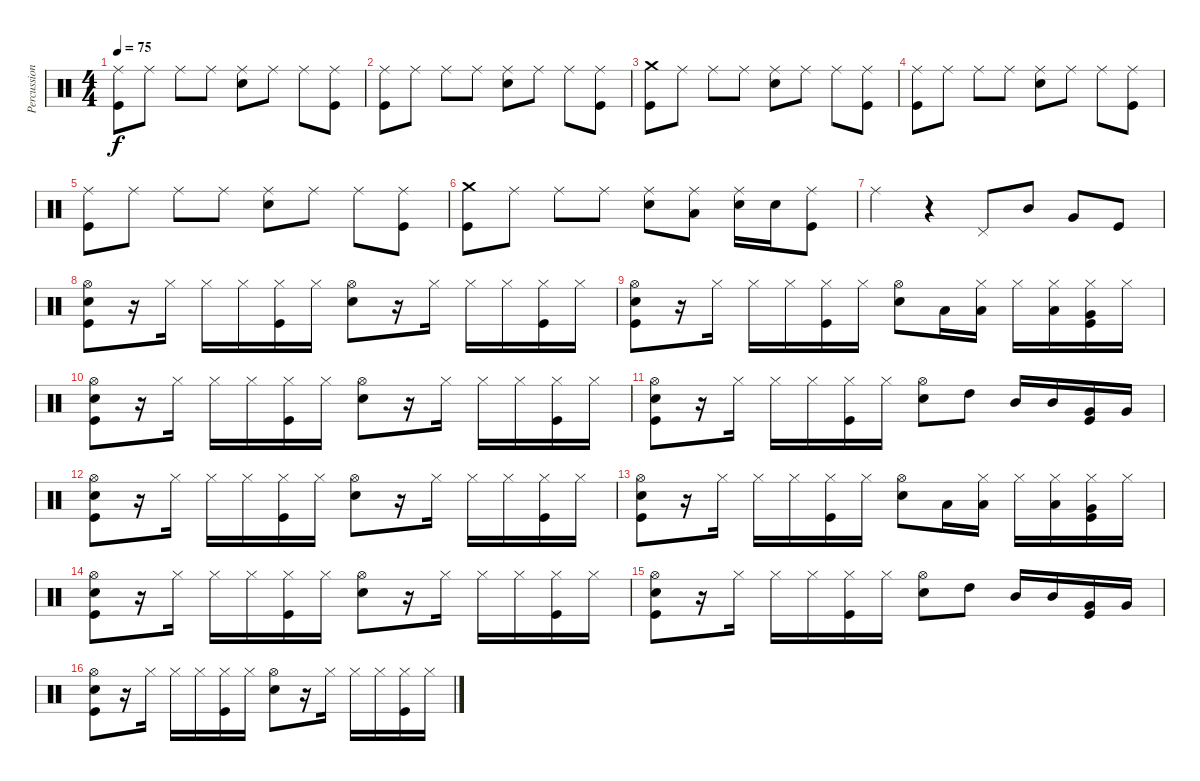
\track ("Percussion" "Percussion") {instrument percussion}
\staff {score}
\articulation defaults
\ts (4 4)
\tempo 75
\clef neutral
\ks c
("Ride (middle)" "Kick (hit)").8{dy f} "Ride (middle)".8 "Ride (middle)".8 "Ride (middle)".8 ("Snare (hit) 2" "Ride (middle)").8 "Ride (middle)".8 "Ride (middle)".8 ("Kick (hit)" "Ride (middle)").8 |
("Ride (middle)" "Kick (hit)").8 "Ride (middle)".8 "Ride (middle)".8 "Ride (middle)".8 ("Snare (hit) 2" "Ride (middle)").8 "Ride (middle)".8 "Ride (middle)".8 ("Kick (hit)" "Ride (middle)").8 |
("Crash medium (hit)" "Kick (hit)").8 "Ride (middle)".8 "Ride (middle)".8 "Ride (middle)".8 ("Snare (hit) 2" "Ride (middle)").8 "Ride (middle)".8 "Ride (middle)".8 ("Kick (hit)" "Ride (middle)").8 |
("Ride (middle)" "Kick (hit)").8 "Ride (middle)".8 "Ride (middle)".8 "Ride (middle)".8 ("Snare (hit) 2" "Ride (middle)").8 "Ride (middle)".8 "Ride (middle)".8 ("Kick (hit)" "Ride (middle)").8 |
("Ride (middle)" "Kick (hit)").8 "Ride (middle)".8 "Ride (middle)".8 "Ride (middle)".8 ("Snare (hit) 2" "Ride (middle)").8 "Ride (middle)".8 "Ride (middle)".8 ("Kick (hit)" "Ride (middle)").8 |
("Crash medium (hit)" "Kick (hit)").8 "Ride (middle)".8 "Ride (middle)".8 "Ride (middle)".8 ("Snare (hit) 2" "Ride (middle)").8 ("Low Floor Tom (hit)" "Ride (middle)").8 ("Snare (hit) 2" "Ride (middle)").16 "Snare (hit) 2".16 ("Kick (hit)" "Ride (middle)").8 |
"Ride (middle)".4 r.4 "Pedal Hi-Hat (hit)".8 "Mid Tom (hit)".8 "Very Low Tom (hit)".8 "Kick (hit)".8 |
("Hi-Hat (open)" "Kick (hit)" "Snare (hit) 2").8 r.16 "Hi-Hat (closed)".16 "Hi-Hat (closed)".16 "Hi-Hat (closed)".16 ("Kick (hit)" "Hi-Hat (closed)").16 "Hi-Hat (closed)".16 ("Snare (hit) 2" "Hi-Hat (open)").8 r.16 "Hi-Hat (closed)".16 "Hi-Hat (closed)".16 "Hi-Hat (closed)".16 ("Kick (hit)" "Hi-Hat (closed)").16 "Hi-Hat (closed)".16 |
("Hi-Hat (open)" "Kick (hit)" "Snare (hit) 2").8 r.16 "Hi-Hat (closed)".16 "Hi-Hat (closed)".16 "Hi-Hat (closed)".16 ("Kick (hit)" "Hi-Hat (closed)").16 "Hi-Hat (closed)".16 ("Snare (hit) 2" "Hi-Hat (open)").8 "Low Tom (hit)".16 ("Low Tom (hit)" "Hi-Hat (closed)").16 "Hi-Hat (closed)".16 ("Low Tom (hit)" "Hi-Hat (closed)").16 ("Very Low Tom (hit)" "Kick (hit)" "Hi-Hat (closed)").16 "Hi-Hat (closed)".16 |
("Hi-Hat (open)" "Kick (hit)" "Snare (hit) 2").8 r.16 "Hi-Hat (closed)".16 "Hi-Hat (closed)".16 "Hi-Hat (closed)".16 ("Kick (hit)" "Hi-Hat (closed)").16 "Hi-Hat (closed)".16 ("Snare (hit) 2" "Hi-Hat (open)").8 r.16 "Hi-Hat (closed)".16 "Hi-Hat (closed)".16 "Hi-Hat (closed)".16 ("Kick (hit)" "Hi-Hat (closed)").16 "Hi-Hat (closed)".16 |
("Hi-Hat (open)" "Kick (hit)" "Snare (hit) 2").8 r.16 "Hi-Hat (closed)".16 "Hi-Hat (closed)".16 "Hi-Hat (closed)".16 ("Kick (hit)" "Hi-Hat (closed)").16 "Hi-Hat (closed)".16 ("Snare (hit) 2" "Hi-Hat (open)").8 "High Tom (hit)".8 "Mid Tom (hit)".16 "Mid Tom (hit)".16 ("Very Low Tom (hit)" "Kick (hit)").16 "Very Low Tom (hit)".16 |
("Hi-Hat (open)" "Kick (hit)" "Snare (hit) 2").8 r.16 "Hi-Hat (closed)".16 "Hi-Hat (closed)".16 "Hi-Hat (closed)".16 ("Kick (hit)" "Hi-Hat (closed)").16 "Hi-Hat (closed)".16 ("Snare (hit) 2" "Hi-Hat (open)").8 r.16 "Hi-Hat (closed)".16 "Hi-Hat (closed)".16 "Hi-Hat (closed)".16 ("Kick (hit)" "Hi-Hat (closed)").16 "Hi-Hat (closed)".16 |
("Hi-Hat (open)" "Kick (hit)" "Snare (hit) 2").8 r.16 "Hi-Hat (closed)".16 "Hi-Hat (closed)".16 "Hi-Hat (closed)".16 ("Kick (hit)" "Hi-Hat (closed)").16 "Hi-Hat (closed)".16 ("Snare (hit) 2" "Hi-Hat (open)").8 "Low Tom (hit)".16 ("Low Tom (hit)" "Hi-Hat (closed)").16 "Hi-Hat (closed)".16 ("Low Tom (hit)" "Hi-Hat (closed)").16 ("Very Low Tom (hit)" "Kick (hit)" "Hi-Hat (closed)").16 "Hi-Hat (closed)".16 |
("Hi-Hat (open)" "Kick (hit)" "Snare (hit) 2").8 r.16 "Hi-Hat (closed)".16 "Hi-Hat (closed)".16 "Hi-Hat (closed)".16 ("Kick (hit)" "Hi-Hat (closed)").16 "Hi-Hat (closed)".16 ("Snare (hit) 2" "Hi-Hat (open)").8 r.16 "Hi-Hat (closed)".16 "Hi-Hat (closed)".16 "Hi-Hat (closed)".16 ("Kick (hit)" "Hi-Hat (closed)").16 "Hi-Hat (closed)".16 |
("Hi-Hat (open)" "Kick (hit)" "Snare (hit) 2").8 r.16 "Hi-Hat (closed)".16 "Hi-Hat (closed)".16 "Hi-Hat (closed)".16 ("Kick (hit)" "Hi-Hat (closed)").16 "Hi-Hat (closed)".16 ("Snare (hit) 2" "Hi-Hat (open)").8 "High Tom (hit)".8 "Mid Tom (hit)".16 "Mid Tom (hit)".16 ("Very Low Tom (hit)" "Kick (hit)").16 "Very Low Tom (hit)".16 |
("Hi-Hat (open)" "Kick (hit)" "Snare (hit) 2").8 r.16 "Hi-Hat (closed)".16 "Hi-Hat (closed)".16 "Hi-Hat (closed)".16 ("Kick (hit)" "Hi-Hat (closed)").16 "Hi-Hat (closed)".16 ("Snare (hit) 2" "Hi-Hat (open)").8 r.16 "Hi-Hat (closed)".16 "Hi-Hat (closed)".16 "Hi-Hat (closed)".16 ("Kick (hit)" "Hi-Hat (closed)").16 "Hi-Hat (closed)".16
